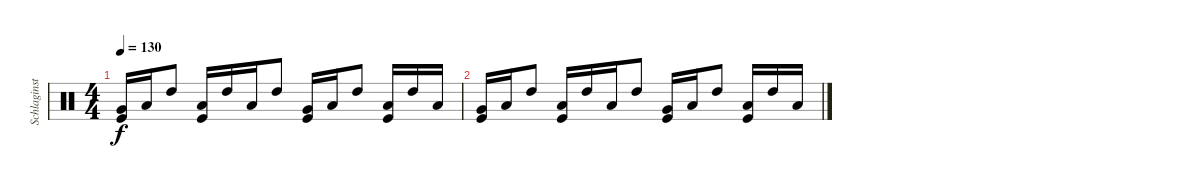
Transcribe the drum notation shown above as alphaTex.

\track ("Schlaginstrumente - Auswahl" "Schlaginst") {instrument percussion}
\staff {score}
\articulation defaults
\ts (4 4)
\tempo 130
\clef neutral
\ks c
("Very Low Tom (hit)" "Kick (hit)").16{dy f} "Low Tom (hit)".16 "High Tom (hit)".8 ("Low Tom (hit)" "Kick (hit)").16 "High Tom (hit)".16 "Low Tom (hit)".16 "High Tom (hit)".8 ("Very Low Tom (hit)" "Kick (hit)").16 "Low Tom (hit)".16 "High Tom (hit)".8 ("Low Tom (hit)" "Kick (hit)").16 "High Tom (hit)".16 "Low Tom (hit)".16 |
("Very Low Tom (hit)" "Kick (hit)").16 "Low Tom (hit)".16 "High Tom (hit)".8 ("Low Tom (hit)" "Kick (hit)").16 "High Tom (hit)".16 "Low Tom (hit)".16 "High Tom (hit)".8 ("Very Low Tom (hit)" "Kick (hit)").16 "Low Tom (hit)".16 "High Tom (hit)".8 ("Low Tom (hit)" "Kick (hit)").16 "High Tom (hit)".16 "Low Tom (hit)".16
